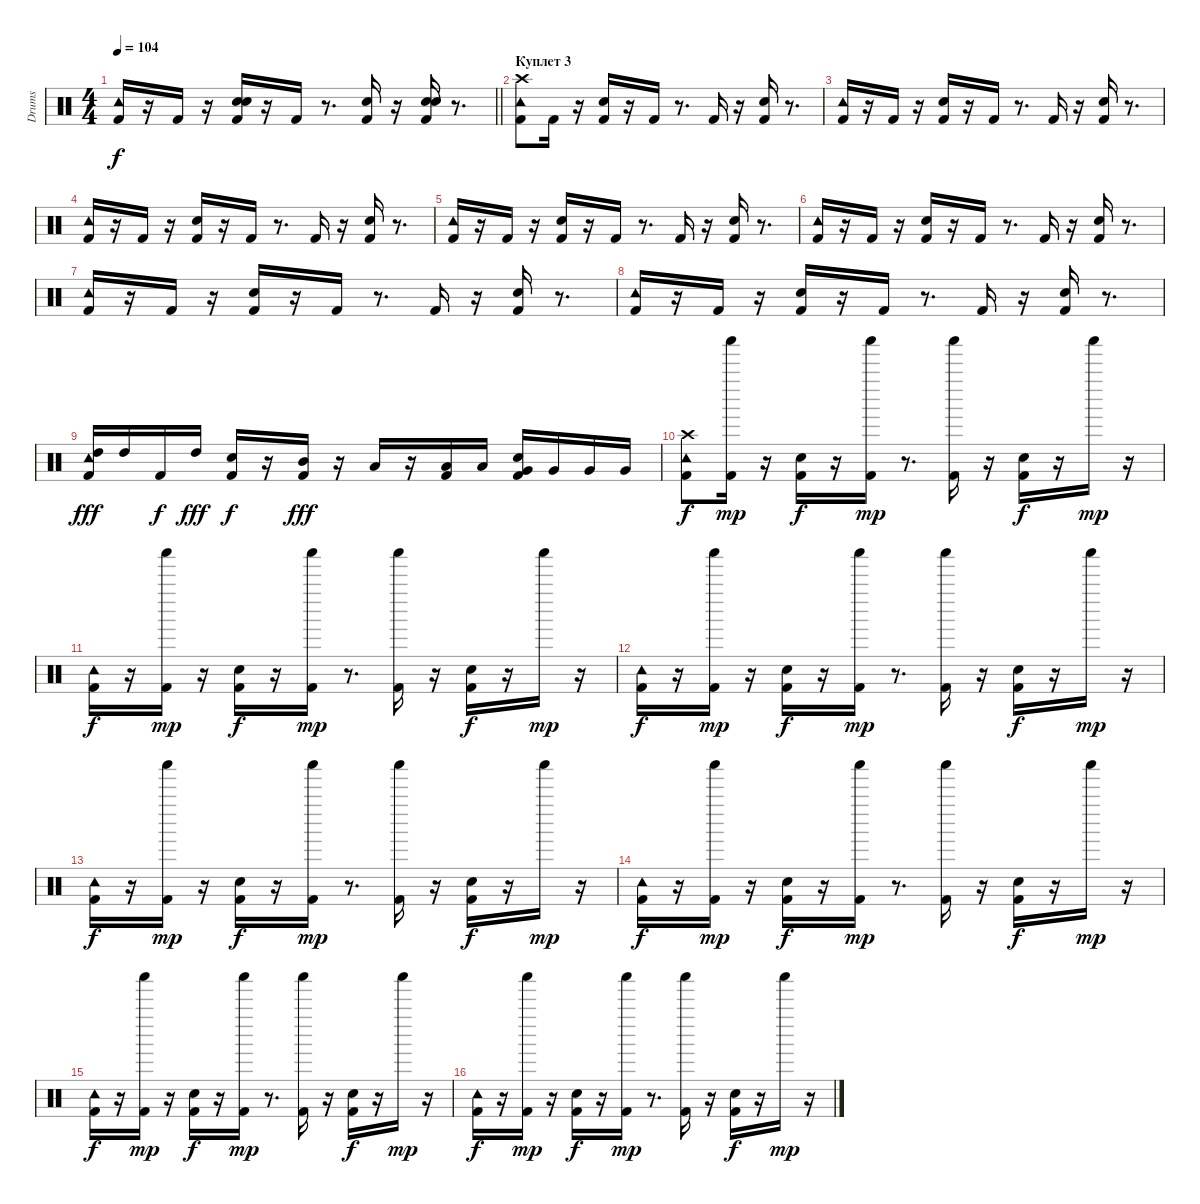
\track ("Drums" "Drums") {instrument percussion}
\staff {score}
\articulation defaults
\ts (4 4)
\tempo 104
\clef neutral
\barLineRight lightlight
\ks c
("Tambourine (hit)" "Kick (hit) 2").16{dy f} r.16 "Kick (hit) 2".16 r.16 ("Hand Clap (hit)" "Kick (hit) 2" "Snare (hit) 2").16 r.16 "Kick (hit) 2".16 r.8{d} ("Kick (hit) 2" "Hand Clap (hit)").16 r.16 ("Snare (hit) 2" "Kick (hit) 2" "Hand Clap (hit)").16 r.8{d} |
\section ("" "Куплет 3")
("Crash high (hit)" "Tambourine (hit)" "Kick (hit) 2").8 "Kick (hit) 2".16 r.16 ("Kick (hit) 2" "Snare (hit) 2").16 r.16 "Kick (hit) 2".16 r.8{d} "Kick (hit) 2".16 r.16 ("Snare (hit) 2" "Kick (hit) 2").16 r.8{d} |
("Tambourine (hit)" "Kick (hit) 2").16 r.16 "Kick (hit) 2".16 r.16 ("Kick (hit) 2" "Snare (hit) 2").16 r.16 "Kick (hit) 2".16 r.8{d} "Kick (hit) 2".16 r.16 ("Snare (hit) 2" "Kick (hit) 2").16 r.8{d} |
("Tambourine (hit)" "Kick (hit) 2").16 r.16 "Kick (hit) 2".16 r.16 ("Kick (hit) 2" "Snare (hit) 2").16 r.16 "Kick (hit) 2".16 r.8{d} "Kick (hit) 2".16 r.16 ("Snare (hit) 2" "Kick (hit) 2").16 r.8{d} |
("Tambourine (hit)" "Kick (hit) 2").16 r.16 "Kick (hit) 2".16 r.16 ("Kick (hit) 2" "Snare (hit) 2").16 r.16 "Kick (hit) 2".16 r.8{d} "Kick (hit) 2".16 r.16 ("Snare (hit) 2" "Kick (hit) 2").16 r.8{d} |
("Tambourine (hit)" "Kick (hit) 2").16 r.16 "Kick (hit) 2".16 r.16 ("Kick (hit) 2" "Snare (hit) 2").16 r.16 "Kick (hit) 2".16 r.8{d} "Kick (hit) 2".16 r.16 ("Snare (hit) 2" "Kick (hit) 2").16 r.8{d} |
("Tambourine (hit)" "Kick (hit) 2").16 r.16 "Kick (hit) 2".16 r.16 ("Kick (hit) 2" "Snare (hit) 2").16 r.16 "Kick (hit) 2".16 r.8{d} "Kick (hit) 2".16 r.16 ("Snare (hit) 2" "Kick (hit) 2").16 r.8{d} |
("Tambourine (hit)" "Kick (hit) 2").16 r.16 "Kick (hit) 2".16 r.16 ("Kick (hit) 2" "Snare (hit) 2").16 r.16 "Kick (hit) 2".16 r.8{d} "Kick (hit) 2".16 r.16 ("Snare (hit) 2" "Kick (hit) 2").16 r.8{d} |
("High Tom (hit)" "Tambourine (hit)" "Kick (hit) 2").16{dy fff} "High Tom (hit)".16 "Kick (hit) 2".16{dy f} "High Tom (hit)".16{dy fff} ("Kick (hit) 2" "Snare (hit) 2").16{dy f} r.16 ("Mid Tom (hit)" "Kick (hit) 2").16{dy fff} r.16 "Low Tom (hit)".16 r.16 ("Kick (hit) 2" "Low Tom (hit)").16 "Low Tom (hit)".16 ("Snare (hit) 2" "Kick (hit) 2" "Very Low Tom (hit)").16 "Very Low Tom (hit)".16 "Very Low Tom (hit)".16 "Very Low Tom (hit)".16 |
("Crash high (hit)" "Tambourine (hit)" "Kick (hit) 2").8{dy f} ("Shaker (hit)" "Kick (hit) 2").16{dy mp} r.16 ("Kick (hit) 2" "Snare (hit) 2").16{dy f} r.16 ("Shaker (hit)" "Kick (hit) 2").16{dy mp} r.8{d} ("Shaker (hit)" "Kick (hit) 2").16 r.16 ("Snare (hit) 2" "Kick (hit) 2").16{dy f} r.16 "Shaker (hit)".16{dy mp} r.16 |
("Tambourine (hit)" "Kick (hit) 2").16{dy f} r.16 ("Kick (hit) 2" "Shaker (hit)").16{dy mp} r.16 ("Kick (hit) 2" "Snare (hit) 2").16{dy f} r.16 ("Kick (hit) 2" "Shaker (hit)").16{dy mp} r.8{d} ("Kick (hit) 2" "Shaker (hit)").16 r.16 ("Snare (hit) 2" "Kick (hit) 2").16{dy f} r.16 "Shaker (hit)".16{dy mp} r.16 |
("Tambourine (hit)" "Kick (hit) 2").16{dy f} r.16 ("Kick (hit) 2" "Shaker (hit)").16{dy mp} r.16 ("Kick (hit) 2" "Snare (hit) 2").16{dy f} r.16 ("Kick (hit) 2" "Shaker (hit)").16{dy mp} r.8{d} ("Kick (hit) 2" "Shaker (hit)").16 r.16 ("Snare (hit) 2" "Kick (hit) 2").16{dy f} r.16 "Shaker (hit)".16{dy mp} r.16 |
("Tambourine (hit)" "Kick (hit) 2").16{dy f} r.16 ("Kick (hit) 2" "Shaker (hit)").16{dy mp} r.16 ("Kick (hit) 2" "Snare (hit) 2").16{dy f} r.16 ("Kick (hit) 2" "Shaker (hit)").16{dy mp} r.8{d} ("Kick (hit) 2" "Shaker (hit)").16 r.16 ("Snare (hit) 2" "Kick (hit) 2").16{dy f} r.16 "Shaker (hit)".16{dy mp} r.16 |
("Tambourine (hit)" "Kick (hit) 2").16{dy f} r.16 ("Shaker (hit)" "Kick (hit) 2").16{dy mp} r.16 ("Kick (hit) 2" "Snare (hit) 2").16{dy f} r.16 ("Shaker (hit)" "Kick (hit) 2").16{dy mp} r.8{d} ("Shaker (hit)" "Kick (hit) 2").16 r.16 ("Snare (hit) 2" "Kick (hit) 2").16{dy f} r.16 "Shaker (hit)".16{dy mp} r.16 |
("Tambourine (hit)" "Kick (hit) 2").16{dy f} r.16 ("Kick (hit) 2" "Shaker (hit)").16{dy mp} r.16 ("Kick (hit) 2" "Snare (hit) 2").16{dy f} r.16 ("Kick (hit) 2" "Shaker (hit)").16{dy mp} r.8{d} ("Kick (hit) 2" "Shaker (hit)").16 r.16 ("Snare (hit) 2" "Kick (hit) 2").16{dy f} r.16 "Shaker (hit)".16{dy mp} r.16 |
("Tambourine (hit)" "Kick (hit) 2").16{dy f} r.16 ("Kick (hit) 2" "Shaker (hit)").16{dy mp} r.16 ("Kick (hit) 2" "Snare (hit) 2").16{dy f} r.16 ("Kick (hit) 2" "Shaker (hit)").16{dy mp} r.8{d} ("Kick (hit) 2" "Shaker (hit)").16 r.16 ("Snare (hit) 2" "Kick (hit) 2").16{dy f} r.16 "Shaker (hit)".16{dy mp} r.16
